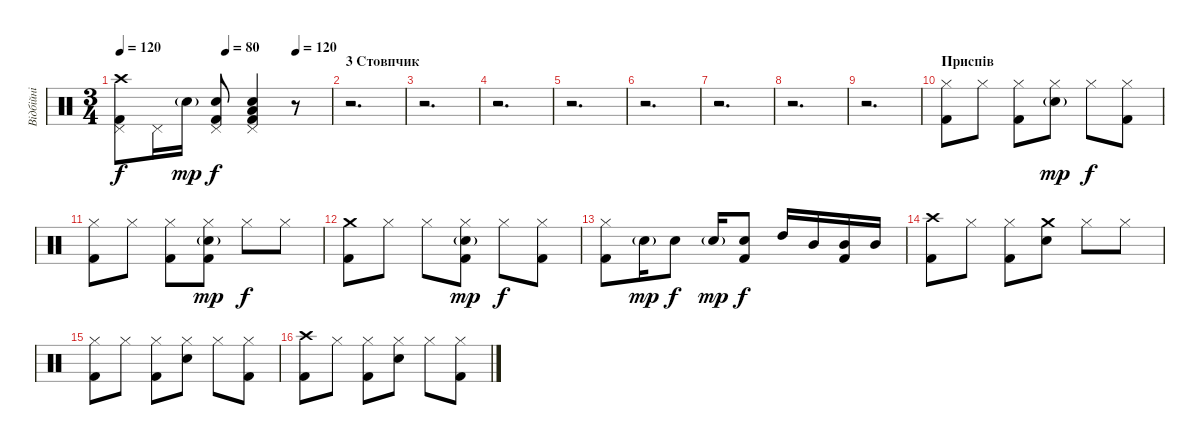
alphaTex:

\track ("Вiдбiйнi" "Вiдбiйнi") {instrument percussion}
\staff {score}
\articulation defaults
\ts (3 4)
\tempo 120
\tempo (80 0.5)
\tempo (120 0.8333333333333334)
\clef neutral
\ks c
("Crash high (hit)" "Pedal Hi-Hat (hit)" "Kick (hit) 2").8{dy f} "Pedal Hi-Hat (hit)".16 "Electric Snare (hit)"{g}.16{dy mp} ("Pedal Hi-Hat (hit)" "Electric Snare (hit)" "Kick (hit) 2").8{dy f} ("Pedal Hi-Hat (hit)" "Low Floor Tom (hit)" "Electric Snare (hit)" "Kick (hit) 2").4 r.8 |
\section ("" "3 Стовпчик")
r.2{d} |
r.2{d} |
r.2{d} |
r.2{d} |
r.2{d} |
r.2{d} |
r.2{d} |
r.2{d} |
\section ("" "Приспів")
("Hi-Hat (closed)" "Kick (hit) 2").8 "Hi-Hat (closed)".8 ("Hi-Hat (closed)" "Kick (hit) 2").8 ("Hi-Hat (closed)" "Electric Snare (hit)"{g}).8{dy mp} "Hi-Hat (closed)".8{dy f} ("Hi-Hat (closed)" "Kick (hit) 2").8 |
("Hi-Hat (closed)" "Kick (hit) 2").8 "Hi-Hat (closed)".8 ("Hi-Hat (closed)" "Kick (hit) 2").8 ("Hi-Hat (closed)" "Electric Snare (hit)"{g} "Kick (hit) 2").8{dy mp} "Hi-Hat (closed)".8{dy f} "Hi-Hat (closed)".8 |
("Crash medium (hit)" "Kick (hit) 2").8 "Hi-Hat (closed)".8 "Hi-Hat (closed)".8 ("Hi-Hat (closed)" "Electric Snare (hit)"{g} "Kick (hit) 2").8{dy mp} "Hi-Hat (closed)".8{dy f} ("Hi-Hat (closed)" "Kick (hit) 2").8 |
("Hi-Hat (closed)" "Kick (hit) 2").8 "Electric Snare (hit)"{g}.16{dy mp} "Electric Snare (hit)".8{dy f} "Electric Snare (hit)"{g}.16{dy mp} ("Electric Snare (hit)" "Kick (hit) 2").8{dy f} "High Tom (hit)".16 "Mid Tom (hit)".16 ("Mid Tom (hit)" "Kick (hit) 2").16 "Mid Tom (hit)".16 |
("Crash high (hit)" "Kick (hit) 2").8 "Hi-Hat (closed)".8 ("Hi-Hat (closed)" "Kick (hit) 2").8 ("Crash medium (hit)" "Electric Snare (hit)").8 "Hi-Hat (closed)".8 "Hi-Hat (closed)".8 |
("Hi-Hat (closed)" "Kick (hit) 2").8 "Hi-Hat (closed)".8 ("Hi-Hat (closed)" "Kick (hit) 2").8 ("Hi-Hat (closed)" "Electric Snare (hit)").8 "Hi-Hat (closed)".8 ("Hi-Hat (closed)" "Kick (hit) 2").8 |
("Crash high (hit)" "Kick (hit) 2").8 "Hi-Hat (closed)".8 ("Hi-Hat (closed)" "Kick (hit) 2").8 ("Hi-Hat (closed)" "Electric Snare (hit)").8 "Hi-Hat (closed)".8 ("Hi-Hat (closed)" "Kick (hit) 2").8
